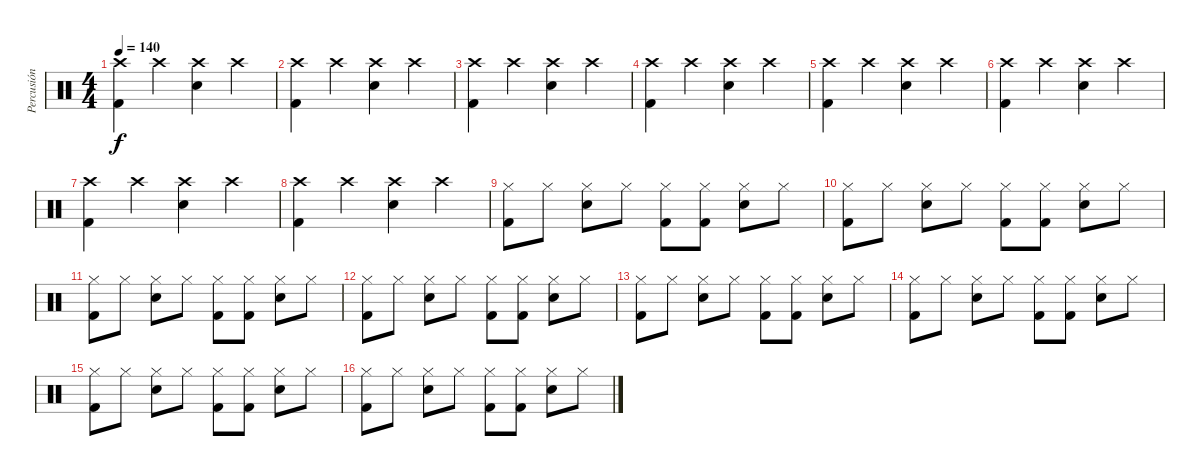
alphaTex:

\track ("Percusión" "Percusión") {instrument percussion}
\staff {score}
\articulation defaults
\ts (4 4)
\tempo 140
\clef neutral
\ks c
("Crash high (hit)" "Kick (hit) 2").4{dy f} "Crash high (hit)".4 ("Crash high (hit)" "Snare (hit) 2").4 "Crash high (hit)".4 |
("Crash high (hit)" "Kick (hit) 2").4 "Crash high (hit)".4 ("Crash high (hit)" "Snare (hit) 2").4 "Crash high (hit)".4 |
("Crash high (hit)" "Kick (hit) 2").4 "Crash high (hit)".4 ("Crash high (hit)" "Snare (hit) 2").4 "Crash high (hit)".4 |
("Crash high (hit)" "Kick (hit) 2").4 "Crash high (hit)".4 ("Crash high (hit)" "Snare (hit) 2").4 "Crash high (hit)".4 |
("Crash high (hit)" "Kick (hit) 2").4 "Crash high (hit)".4 ("Crash high (hit)" "Snare (hit) 2").4 "Crash high (hit)".4 |
("Crash high (hit)" "Kick (hit) 2").4 "Crash high (hit)".4 ("Crash high (hit)" "Snare (hit) 2").4 "Crash high (hit)".4 |
("Crash high (hit)" "Kick (hit) 2").4 "Crash high (hit)".4 ("Crash high (hit)" "Snare (hit) 2").4 "Crash high (hit)".4 |
("Crash high (hit)" "Kick (hit) 2").4 "Crash high (hit)".4 ("Crash high (hit)" "Snare (hit) 2").4 "Crash high (hit)".4 |
("Hi-Hat (closed)" "Kick (hit) 2").8 "Hi-Hat (closed)".8 ("Hi-Hat (closed)" "Snare (hit) 2").8 "Hi-Hat (closed)".8 ("Hi-Hat (closed)" "Kick (hit) 2").8 ("Hi-Hat (closed)" "Kick (hit) 2").8 ("Hi-Hat (closed)" "Snare (hit) 2").8 "Hi-Hat (closed)".8 |
("Hi-Hat (closed)" "Kick (hit) 2").8 "Hi-Hat (closed)".8 ("Hi-Hat (closed)" "Snare (hit) 2").8 "Hi-Hat (closed)".8 ("Hi-Hat (closed)" "Kick (hit) 2").8 ("Hi-Hat (closed)" "Kick (hit) 2").8 ("Hi-Hat (closed)" "Snare (hit) 2").8 "Hi-Hat (closed)".8 |
("Hi-Hat (closed)" "Kick (hit) 2").8 "Hi-Hat (closed)".8 ("Hi-Hat (closed)" "Snare (hit) 2").8 "Hi-Hat (closed)".8 ("Hi-Hat (closed)" "Kick (hit) 2").8 ("Hi-Hat (closed)" "Kick (hit) 2").8 ("Hi-Hat (closed)" "Snare (hit) 2").8 "Hi-Hat (closed)".8 |
("Hi-Hat (closed)" "Kick (hit) 2").8 "Hi-Hat (closed)".8 ("Hi-Hat (closed)" "Snare (hit) 2").8 "Hi-Hat (closed)".8 ("Hi-Hat (closed)" "Kick (hit) 2").8 ("Hi-Hat (closed)" "Kick (hit) 2").8 ("Hi-Hat (closed)" "Snare (hit) 2").8 "Hi-Hat (closed)".8 |
("Hi-Hat (closed)" "Kick (hit) 2").8 "Hi-Hat (closed)".8 ("Hi-Hat (closed)" "Snare (hit) 2").8 "Hi-Hat (closed)".8 ("Hi-Hat (closed)" "Kick (hit) 2").8 ("Hi-Hat (closed)" "Kick (hit) 2").8 ("Hi-Hat (closed)" "Snare (hit) 2").8 "Hi-Hat (closed)".8 |
("Hi-Hat (closed)" "Kick (hit) 2").8 "Hi-Hat (closed)".8 ("Hi-Hat (closed)" "Snare (hit) 2").8 "Hi-Hat (closed)".8 ("Hi-Hat (closed)" "Kick (hit) 2").8 ("Hi-Hat (closed)" "Kick (hit) 2").8 ("Hi-Hat (closed)" "Snare (hit) 2").8 "Hi-Hat (closed)".8 |
("Hi-Hat (closed)" "Kick (hit) 2").8 "Hi-Hat (closed)".8 ("Hi-Hat (closed)" "Snare (hit) 2").8 "Hi-Hat (closed)".8 ("Hi-Hat (closed)" "Kick (hit) 2").8 ("Hi-Hat (closed)" "Kick (hit) 2").8 ("Hi-Hat (closed)" "Snare (hit) 2").8 "Hi-Hat (closed)".8 |
("Hi-Hat (closed)" "Kick (hit) 2").8 "Hi-Hat (closed)".8 ("Hi-Hat (closed)" "Snare (hit) 2").8 "Hi-Hat (closed)".8 ("Hi-Hat (closed)" "Kick (hit) 2").8 ("Hi-Hat (closed)" "Kick (hit) 2").8 ("Hi-Hat (closed)" "Snare (hit) 2").8 "Hi-Hat (closed)".8
